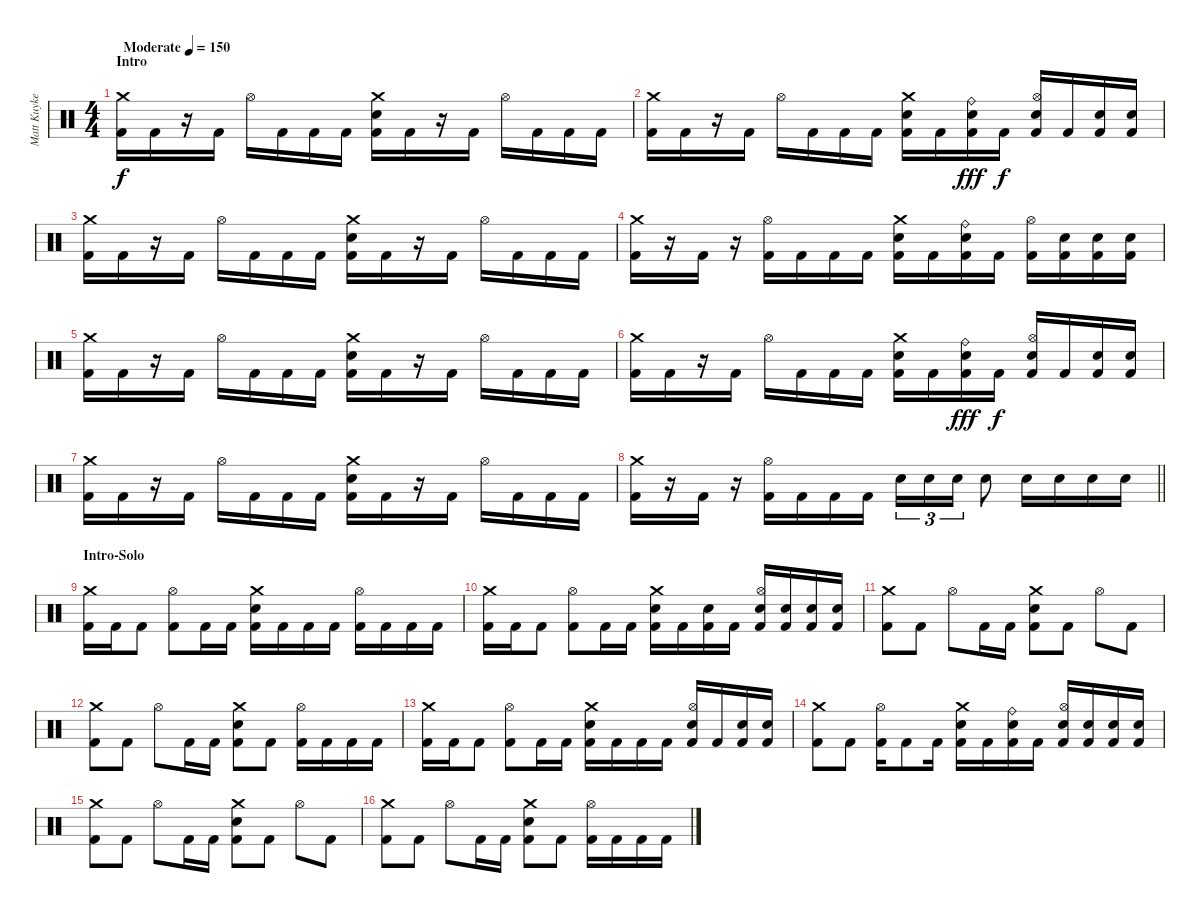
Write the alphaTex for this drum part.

\track ("Matt Kuykendall" "Matt Kuyke") {instrument percussion}
\staff {score}
\articulation defaults
\ts (4 4)
\section ("" "Intro")
\tempo (150 "Moderate")
\clef neutral
\ks c
("Crash medium (hit)" "Kick (hit) 2").16{dy f} "Kick (hit) 2".16 r.16 "Kick (hit) 2".16 "Hi-Hat (open)".16 "Kick (hit) 2".16 "Kick (hit) 2".16 "Kick (hit) 2".16 ("Crash medium (hit)" "Electric Snare (hit)" "Kick (hit) 2").16 "Kick (hit) 2".16 r.16 "Kick (hit) 2".16 "Hi-Hat (open)".16 "Kick (hit) 2".16 "Kick (hit) 2".16 "Kick (hit) 2".16 |
("Crash medium (hit)" "Kick (hit) 2").16 "Kick (hit) 2".16 r.16 "Kick (hit) 2".16 "Hi-Hat (open)".16 "Kick (hit) 2".16 "Kick (hit) 2".16 "Kick (hit) 2".16 ("Crash medium (hit)" "Electric Snare (hit)" "Kick (hit) 2").16 "Kick (hit) 2".16 ("Ride (bell)" "Electric Snare (hit)" "Kick (hit) 2").16{dy fff} "Kick (hit) 2".16{dy f} ("Hi-Hat (open)" "Electric Snare (hit)" "Kick (hit) 2").16 "Kick (hit) 2".16 ("Electric Snare (hit)" "Kick (hit) 2").16 ("Electric Snare (hit)" "Kick (hit) 2").16 |
("Crash medium (hit)" "Kick (hit) 2").16 "Kick (hit) 2".16 r.16 "Kick (hit) 2".16 "Hi-Hat (open)".16 "Kick (hit) 2".16 "Kick (hit) 2".16 "Kick (hit) 2".16 ("Crash medium (hit)" "Electric Snare (hit)" "Kick (hit) 2").16 "Kick (hit) 2".16 r.16 "Kick (hit) 2".16 "Hi-Hat (open)".16 "Kick (hit) 2".16 "Kick (hit) 2".16 "Kick (hit) 2".16 |
("Crash medium (hit)" "Kick (hit) 2").16 r.16 "Kick (hit) 2".16 r.16 ("Hi-Hat (open)" "Kick (hit) 2").16 "Kick (hit) 2".16 "Kick (hit) 2".16 "Kick (hit) 2".16 ("Crash medium (hit)" "Electric Snare (hit)" "Kick (hit) 2").16 "Kick (hit) 2".16 ("Ride (bell)" "Electric Snare (hit)" "Kick (hit) 2").16 "Kick (hit) 2".16 ("Hi-Hat (open)" "Kick (hit) 2").16 ("Electric Snare (hit)" "Kick (hit) 2").16 ("Electric Snare (hit)" "Kick (hit) 2").16 ("Electric Snare (hit)" "Kick (hit) 2").16 |
("Crash medium (hit)" "Kick (hit) 2").16 "Kick (hit) 2".16 r.16 "Kick (hit) 2".16 "Hi-Hat (open)".16 "Kick (hit) 2".16 "Kick (hit) 2".16 "Kick (hit) 2".16 ("Crash medium (hit)" "Electric Snare (hit)" "Kick (hit) 2").16 "Kick (hit) 2".16 r.16 "Kick (hit) 2".16 "Hi-Hat (open)".16 "Kick (hit) 2".16 "Kick (hit) 2".16 "Kick (hit) 2".16 |
("Crash medium (hit)" "Kick (hit) 2").16 "Kick (hit) 2".16 r.16 "Kick (hit) 2".16 "Hi-Hat (open)".16 "Kick (hit) 2".16 "Kick (hit) 2".16 "Kick (hit) 2".16 ("Crash medium (hit)" "Electric Snare (hit)" "Kick (hit) 2").16 "Kick (hit) 2".16 ("Ride (bell)" "Electric Snare (hit)" "Kick (hit) 2").16{dy fff} "Kick (hit) 2".16{dy f} ("Hi-Hat (open)" "Electric Snare (hit)" "Kick (hit) 2").16 "Kick (hit) 2".16 ("Electric Snare (hit)" "Kick (hit) 2").16 ("Electric Snare (hit)" "Kick (hit) 2").16 |
("Crash medium (hit)" "Kick (hit) 2").16 "Kick (hit) 2".16 r.16 "Kick (hit) 2".16 "Hi-Hat (open)".16 "Kick (hit) 2".16 "Kick (hit) 2".16 "Kick (hit) 2".16 ("Crash medium (hit)" "Electric Snare (hit)" "Kick (hit) 2").16 "Kick (hit) 2".16 r.16 "Kick (hit) 2".16 "Hi-Hat (open)".16 "Kick (hit) 2".16 "Kick (hit) 2".16 "Kick (hit) 2".16 |
\barLineRight lightlight
("Crash medium (hit)" "Kick (hit) 2").16 r.16 "Kick (hit) 2".16 r.16 ("Hi-Hat (open)" "Kick (hit) 2").16 "Kick (hit) 2".16 "Kick (hit) 2".16 "Kick (hit) 2".16 "Electric Snare (hit)".16{tu (3 2)} "Electric Snare (hit)".16{tu (3 2)} "Electric Snare (hit)".16{tu (3 2)} "Electric Snare (hit)".8 "Electric Snare (hit)".16 "Electric Snare (hit)".16 "Electric Snare (hit)".16 "Electric Snare (hit)".16 |
\section ("" "Intro-Solo")
("Crash medium (hit)" "Kick (hit) 2").16 "Kick (hit) 2".16 "Kick (hit) 2".8 ("Hi-Hat (open)" "Kick (hit) 2").8 "Kick (hit) 2".16 "Kick (hit) 2".16 ("Crash medium (hit)" "Electric Snare (hit)" "Kick (hit) 2").16 "Kick (hit) 2".16 "Kick (hit) 2".16 "Kick (hit) 2".16 ("Hi-Hat (open)" "Kick (hit) 2").16 "Kick (hit) 2".16 "Kick (hit) 2".16 "Kick (hit) 2".16 |
("Crash medium (hit)" "Kick (hit) 2").16 "Kick (hit) 2".16 "Kick (hit) 2".8 ("Hi-Hat (open)" "Kick (hit) 2").8 "Kick (hit) 2".16 "Kick (hit) 2".16 ("Crash medium (hit)" "Electric Snare (hit)" "Kick (hit) 2").16 "Kick (hit) 2".16 ("Electric Snare (hit)" "Kick (hit) 2").16 "Kick (hit) 2".16 ("Hi-Hat (open)" "Electric Snare (hit)" "Kick (hit) 2").16 ("Electric Snare (hit)" "Kick (hit) 2").16 ("Electric Snare (hit)" "Kick (hit) 2").16 ("Electric Snare (hit)" "Kick (hit) 2").16 |
("Crash medium (hit)" "Kick (hit) 2").8 "Kick (hit) 2".8 "Hi-Hat (open)".8 "Kick (hit) 2".16 "Kick (hit) 2".16 ("Crash medium (hit)" "Electric Snare (hit)" "Kick (hit) 2").8 "Kick (hit) 2".8 "Hi-Hat (open)".8 "Kick (hit) 2".8 |
("Crash medium (hit)" "Kick (hit) 2").8 "Kick (hit) 2".8 "Hi-Hat (open)".8 "Kick (hit) 2".16 "Kick (hit) 2".16 ("Crash medium (hit)" "Electric Snare (hit)" "Kick (hit) 2").8 "Kick (hit) 2".8 ("Hi-Hat (open)" "Kick (hit) 2").16 "Kick (hit) 2".16 "Kick (hit) 2".16 "Kick (hit) 2".16 |
("Crash medium (hit)" "Kick (hit) 2").16 "Kick (hit) 2".16 "Kick (hit) 2".8 ("Hi-Hat (open)" "Kick (hit) 2").8 "Kick (hit) 2".16 "Kick (hit) 2".16 ("Crash medium (hit)" "Electric Snare (hit)" "Kick (hit) 2").16 "Kick (hit) 2".16 "Kick (hit) 2".16 "Kick (hit) 2".16 ("Hi-Hat (open)" "Electric Snare (hit)" "Kick (hit) 2").16 "Kick (hit) 2".16 ("Electric Snare (hit)" "Kick (hit) 2").16 ("Electric Snare (hit)" "Kick (hit) 2").16 |
("Crash medium (hit)" "Kick (hit) 2").8 "Kick (hit) 2".8 ("Hi-Hat (open)" "Kick (hit) 2").16 "Kick (hit) 2".8 "Kick (hit) 2".16 ("Crash medium (hit)" "Electric Snare (hit)" "Kick (hit) 2").16 "Kick (hit) 2".16 ("Ride (bell)" "Electric Snare (hit)" "Kick (hit) 2").16 "Kick (hit) 2".16 ("Hi-Hat (open)" "Electric Snare (hit)" "Kick (hit) 2").16 ("Electric Snare (hit)" "Kick (hit) 2").16 ("Electric Snare (hit)" "Kick (hit) 2").16 ("Electric Snare (hit)" "Kick (hit) 2").16 |
("Crash medium (hit)" "Kick (hit) 2").8 "Kick (hit) 2".8 "Hi-Hat (open)".8 "Kick (hit) 2".16 "Kick (hit) 2".16 ("Crash medium (hit)" "Electric Snare (hit)" "Kick (hit) 2").8 "Kick (hit) 2".8 "Hi-Hat (open)".8 "Kick (hit) 2".8 |
("Crash medium (hit)" "Kick (hit) 2").8 "Kick (hit) 2".8 "Hi-Hat (open)".8 "Kick (hit) 2".16 "Kick (hit) 2".16 ("Crash medium (hit)" "Electric Snare (hit)" "Kick (hit) 2").8 "Kick (hit) 2".8 ("Hi-Hat (open)" "Kick (hit) 2").16 "Kick (hit) 2".16 "Kick (hit) 2".16 "Kick (hit) 2".16
